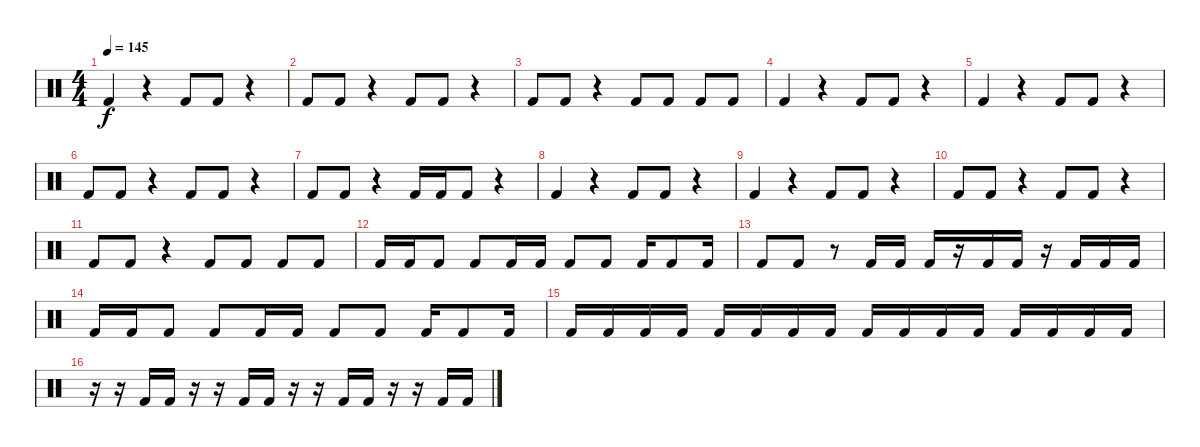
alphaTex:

\track "" {instrument percussion}
\staff {score}
\articulation defaults
\ts (4 4)
\tempo 145
\clef neutral
\ks c "Kick (hit) 2".4{dy f}
r.4 "Kick (hit) 2".8 "Kick (hit) 2".8 r.4 |
"Kick (hit) 2".8 "Kick (hit) 2".8 r.4 "Kick (hit) 2".8 "Kick (hit) 2".8 r.4 |
"Kick (hit) 2".8 "Kick (hit) 2".8 r.4 "Kick (hit) 2".8 "Kick (hit) 2".8 "Kick (hit) 2".8 "Kick (hit) 2".8 |
"Kick (hit) 2".4 r.4 "Kick (hit) 2".8 "Kick (hit) 2".8 r.4 |
"Kick (hit) 2".4 r.4 "Kick (hit) 2".8 "Kick (hit) 2".8 r.4 |
"Kick (hit) 2".8 "Kick (hit) 2".8 r.4 "Kick (hit) 2".8 "Kick (hit) 2".8 r.4 |
"Kick (hit) 2".8 "Kick (hit) 2".8 r.4 "Kick (hit) 2".16 "Kick (hit) 2".16 "Kick (hit) 2".8 r.4 |
"Kick (hit) 2".4 r.4 "Kick (hit) 2".8 "Kick (hit) 2".8 r.4 |
"Kick (hit) 2".4 r.4 "Kick (hit) 2".8 "Kick (hit) 2".8 r.4 |
"Kick (hit) 2".8 "Kick (hit) 2".8 r.4 "Kick (hit) 2".8 "Kick (hit) 2".8 r.4 |
"Kick (hit) 2".8 "Kick (hit) 2".8 r.4 "Kick (hit) 2".8 "Kick (hit) 2".8 "Kick (hit) 2".8 "Kick (hit) 2".8 |
"Kick (hit) 2".16 "Kick (hit) 2".16 "Kick (hit) 2".8 "Kick (hit) 2".8 "Kick (hit) 2".16 "Kick (hit) 2".16 "Kick (hit) 2".8 "Kick (hit) 2".8 "Kick (hit) 2".16 "Kick (hit) 2".8 "Kick (hit) 2".16 |
"Kick (hit) 2".8 "Kick (hit) 2".8 r.8 "Kick (hit) 2".16 "Kick (hit) 2".16 "Kick (hit) 2".16 r.16 "Kick (hit) 2".16 "Kick (hit) 2".16 r.16 "Kick (hit) 2".16 "Kick (hit) 2".16 "Kick (hit) 2".16 |
"Kick (hit) 2".16 "Kick (hit) 2".16 "Kick (hit) 2".8 "Kick (hit) 2".8 "Kick (hit) 2".16 "Kick (hit) 2".16 "Kick (hit) 2".8 "Kick (hit) 2".8 "Kick (hit) 2".16 "Kick (hit) 2".8 "Kick (hit) 2".16 |
"Kick (hit) 2".16 "Kick (hit) 2".16 "Kick (hit) 2".16 "Kick (hit) 2".16 "Kick (hit) 2".16 "Kick (hit) 2".16 "Kick (hit) 2".16 "Kick (hit) 2".16 "Kick (hit) 2".16 "Kick (hit) 2".16 "Kick (hit) 2".16 "Kick (hit) 2".16 "Kick (hit) 2".16 "Kick (hit) 2".16 "Kick (hit) 2".16 "Kick (hit) 2".16 |
r.16 r.16 "Kick (hit) 2".16 "Kick (hit) 2".16 r.16 r.16 "Kick (hit) 2".16 "Kick (hit) 2".16 r.16 r.16 "Kick (hit) 2".16 "Kick (hit) 2".16 r.16 r.16 "Kick (hit) 2".16 "Kick (hit) 2".16
